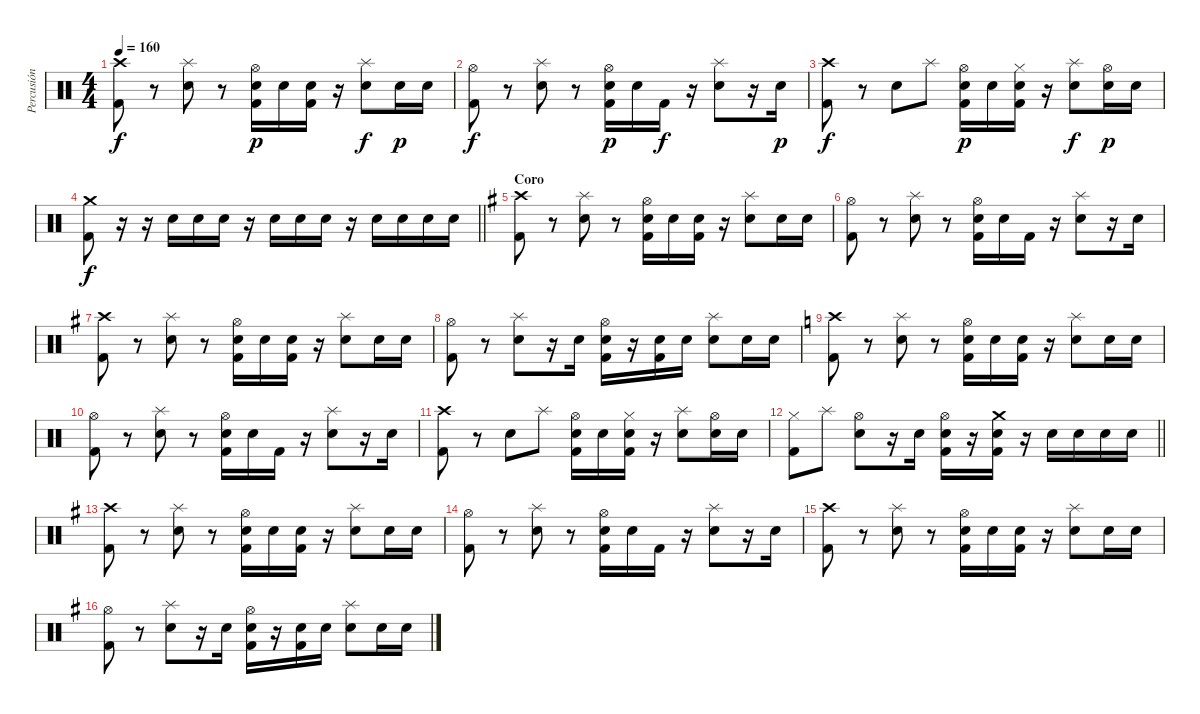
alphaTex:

\track ("Percusión" "Percusión") {instrument percussion}
\staff {score}
\articulation defaults
\ts (4 4)
\tempo 160
\clef neutral
\ks c
("Crash high (hit)" "Kick (hit) 2").8{dy f} r.8 ("Splash (hit)" "Electric Snare (hit)").8 r.8 ("Hi-Hat (open)" "Electric Snare (hit)" "Kick (hit) 2").16{dy p} "Electric Snare (hit)".16 ("Electric Snare (hit)" "Kick (hit) 2").16 r.16 ("Splash (hit)" "Electric Snare (hit)").8{dy f} "Electric Snare (hit)".16{dy p} "Electric Snare (hit)".16 |
("Hi-Hat (open)" "Kick (hit) 2").8{dy f} r.8 ("Splash (hit)" "Electric Snare (hit)").8 r.8 ("Hi-Hat (open)" "Electric Snare (hit)" "Kick (hit) 2").16{dy p} "Electric Snare (hit)".16 "Kick (hit) 2".16{dy f} r.16 ("Splash (hit)" "Electric Snare (hit)").8 r.16 "Electric Snare (hit)".16{dy p} |
("Crash high (hit)" "Kick (hit) 2").8{dy f} r.8 "Electric Snare (hit)".8 "Splash (hit)".8 ("Hi-Hat (open)" "Electric Snare (hit)" "Kick (hit) 2").16{dy p} "Electric Snare (hit)".16 ("Hi-Hat (closed)" "Electric Snare (hit)" "Kick (hit) 2").16 r.16 ("Splash (hit)" "Electric Snare (hit)").8{dy f} ("Hi-Hat (open)" "Electric Snare (hit)").16{dy p} "Electric Snare (hit)".16 |
\barLineRight lightlight
("Crash medium (hit)" "Kick (hit) 2").8{dy f} r.16 r.16 "Electric Snare (hit)".16 "Electric Snare (hit)".16 "Electric Snare (hit)".16 r.16 "Electric Snare (hit)".16 "Electric Snare (hit)".16 "Electric Snare (hit)".16 r.16 "Electric Snare (hit)".16 "Electric Snare (hit)".16 "Electric Snare (hit)".16 "Electric Snare (hit)".16 |
\section ("" "Coro")
\ks g
("Crash high (hit)" "Kick (hit) 2").8 r.8 ("Splash (hit)" "Electric Snare (hit)").8 r.8 ("Hi-Hat (open)" "Electric Snare (hit)" "Kick (hit) 2").16 "Electric Snare (hit)".16 ("Electric Snare (hit)" "Kick (hit) 2").16 r.16 ("Splash (hit)" "Electric Snare (hit)").8 "Electric Snare (hit)".16 "Electric Snare (hit)".16 |
("Hi-Hat (open)" "Kick (hit) 2").8 r.8 ("Splash (hit)" "Electric Snare (hit)").8 r.8 ("Hi-Hat (open)" "Electric Snare (hit)" "Kick (hit) 2").16 "Electric Snare (hit)".16 "Kick (hit) 2".16 r.16 ("Splash (hit)" "Electric Snare (hit)").8 r.16 "Electric Snare (hit)".16 |
("Crash high (hit)" "Kick (hit) 2").8 r.8 ("Splash (hit)" "Electric Snare (hit)").8 r.8 ("Hi-Hat (open)" "Electric Snare (hit)" "Kick (hit) 2").16 "Electric Snare (hit)".16 ("Electric Snare (hit)" "Kick (hit) 2").16 r.16 ("Splash (hit)" "Electric Snare (hit)").8 "Electric Snare (hit)".16 "Electric Snare (hit)".16 |
("Hi-Hat (open)" "Kick (hit) 2").8 r.8 ("Splash (hit)" "Electric Snare (hit)").8 r.16 "Electric Snare (hit)".16 ("Hi-Hat (open)" "Electric Snare (hit)" "Kick (hit) 2").16 r.16 ("Electric Snare (hit)" "Kick (hit) 2").16 "Electric Snare (hit)".16 ("Splash (hit)" "Electric Snare (hit)").8 "Electric Snare (hit)".16 "Electric Snare (hit)".16 |
\ks c
("Crash high (hit)" "Kick (hit) 2").8 r.8 ("Splash (hit)" "Electric Snare (hit)").8 r.8 ("Hi-Hat (open)" "Electric Snare (hit)" "Kick (hit) 2").16 "Electric Snare (hit)".16 ("Electric Snare (hit)" "Kick (hit) 2").16 r.16 ("Splash (hit)" "Electric Snare (hit)").8 "Electric Snare (hit)".16 "Electric Snare (hit)".16 |
("Hi-Hat (open)" "Kick (hit) 2").8 r.8 ("Splash (hit)" "Electric Snare (hit)").8 r.8 ("Hi-Hat (open)" "Electric Snare (hit)" "Kick (hit) 2").16 "Electric Snare (hit)".16 "Kick (hit) 2".16 r.16 ("Splash (hit)" "Electric Snare (hit)").8 r.16 "Electric Snare (hit)".16 |
("Crash high (hit)" "Kick (hit) 2").8 r.8 "Electric Snare (hit)".8 "Splash (hit)".8 ("Hi-Hat (open)" "Electric Snare (hit)" "Kick (hit) 2").16 "Electric Snare (hit)".16 ("Hi-Hat (closed)" "Electric Snare (hit)" "Kick (hit) 2").16 r.16 ("Splash (hit)" "Electric Snare (hit)").8 ("Hi-Hat (open)" "Electric Snare (hit)").16 "Electric Snare (hit)".16 |
\barLineRight lightlight
("Hi-Hat (closed)" "Kick (hit) 2").8 "Splash (hit)".8 ("Hi-Hat (open)" "Electric Snare (hit)").8 r.16 "Electric Snare (hit)".16 ("Hi-Hat (open)" "Electric Snare (hit)" "Kick (hit) 2").16 r.16 ("Crash medium (hit)" "Electric Snare (hit)" "Kick (hit) 2").16 r.16 "Electric Snare (hit)".16 "Electric Snare (hit)".16 "Electric Snare (hit)".16 "Electric Snare (hit)".16 |
\ks g
("Crash high (hit)" "Kick (hit) 2").8 r.8 ("Splash (hit)" "Electric Snare (hit)").8 r.8 ("Hi-Hat (open)" "Electric Snare (hit)" "Kick (hit) 2").16 "Electric Snare (hit)".16 ("Electric Snare (hit)" "Kick (hit) 2").16 r.16 ("Splash (hit)" "Electric Snare (hit)").8 "Electric Snare (hit)".16 "Electric Snare (hit)".16 |
("Hi-Hat (open)" "Kick (hit) 2").8 r.8 ("Splash (hit)" "Electric Snare (hit)").8 r.8 ("Hi-Hat (open)" "Electric Snare (hit)" "Kick (hit) 2").16 "Electric Snare (hit)".16 "Kick (hit) 2".16 r.16 ("Splash (hit)" "Electric Snare (hit)").8 r.16 "Electric Snare (hit)".16 |
("Crash high (hit)" "Kick (hit) 2").8 r.8 ("Splash (hit)" "Electric Snare (hit)").8 r.8 ("Hi-Hat (open)" "Electric Snare (hit)" "Kick (hit) 2").16 "Electric Snare (hit)".16 ("Electric Snare (hit)" "Kick (hit) 2").16 r.16 ("Splash (hit)" "Electric Snare (hit)").8 "Electric Snare (hit)".16 "Electric Snare (hit)".16 |
("Hi-Hat (open)" "Kick (hit) 2").8 r.8 ("Splash (hit)" "Electric Snare (hit)").8 r.16 "Electric Snare (hit)".16 ("Hi-Hat (open)" "Electric Snare (hit)" "Kick (hit) 2").16 r.16 ("Electric Snare (hit)" "Kick (hit) 2").16 "Electric Snare (hit)".16 ("Splash (hit)" "Electric Snare (hit)").8 "Electric Snare (hit)".16 "Electric Snare (hit)".16
